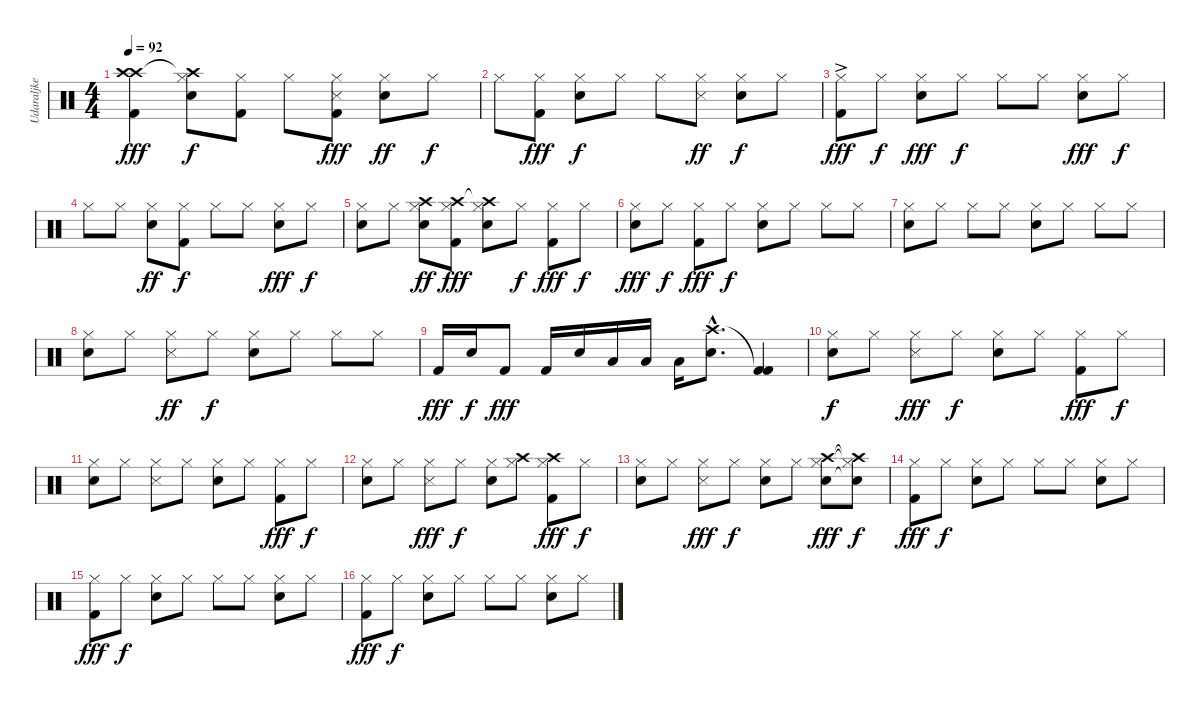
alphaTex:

\track ("Udaraljke" "Udaraljke") {instrument percussion}
\staff {score}
\articulation defaults
\ts (4 4)
\tempo 92
\clef neutral
\ks c
("Kick (hit) 2" "Crash high (hit)" "Crash high (hit)").4{dy fff} ("Hi-Hat (closed)" "Electric Snare (hit)" "Crash high (hit)"{t}).8{dy f} ("Hi-Hat (closed)" "Kick (hit) 2").8 "Hi-Hat (closed)".8 ("Hi-Hat (closed)" "Kick (hit) 2" "Snare (side stick) 3").8{dy fff} ("Hi-Hat (closed)" "Electric Snare (hit)").8{dy ff} "Hi-Hat (closed)".8{dy f} |
"Hi-Hat (closed)".8 ("Hi-Hat (closed)" "Kick (hit) 2").8{dy fff} ("Hi-Hat (closed)" "Electric Snare (hit)").8{dy f} "Hi-Hat (closed)".8 "Hi-Hat (closed)".8 ("Hi-Hat (closed)" "Snare (side stick) 3").8{dy ff} ("Hi-Hat (closed)" "Electric Snare (hit)").8{dy f} "Hi-Hat (closed)".8 |
("Hi-Hat (closed)" "Kick (hit) 2"{ac}).8{dy fff} "Hi-Hat (closed)".8{dy f} ("Hi-Hat (closed)" "Electric Snare (hit)").8{dy fff} "Hi-Hat (closed)".8{dy f} "Hi-Hat (closed)".8 "Hi-Hat (closed)".8 ("Hi-Hat (closed)" "Electric Snare (hit)").8{dy fff} "Hi-Hat (closed)".8{dy f} |
"Hi-Hat (closed)".8 "Hi-Hat (closed)".8 ("Hi-Hat (closed)" "Electric Snare (hit)").8{dy ff} ("Hi-Hat (closed)" "Kick (hit) 2").8{dy f} "Hi-Hat (closed)".8 "Hi-Hat (closed)".8 ("Hi-Hat (closed)" "Electric Snare (hit)").8{dy fff} "Hi-Hat (closed)".8{dy f} |
("Hi-Hat (closed)" "Electric Snare (hit)").8 "Hi-Hat (closed)".8 ("Hi-Hat (closed)" "Electric Snare (hit)" "Crash high (hit)").8{dy ff} ("Hi-Hat (closed)" "Kick (hit) 2" "Crash high (hit)").8{dy fff} ("Hi-Hat (closed)" "Electric Snare (hit)" "Crash high (hit)"{t}).8 "Hi-Hat (closed)".8{dy f} ("Hi-Hat (closed)" "Kick (hit) 2").8{dy fff} "Hi-Hat (closed)".8{dy f} |
("Hi-Hat (closed)" "Electric Snare (hit)").8{dy fff} "Hi-Hat (closed)".8{dy f} ("Hi-Hat (closed)" "Kick (hit) 2").8{dy fff} "Hi-Hat (closed)".8{dy f} ("Hi-Hat (closed)" "Electric Snare (hit)").8 "Hi-Hat (closed)".8 "Hi-Hat (closed)".8 "Hi-Hat (closed)".8 |
("Hi-Hat (closed)" "Electric Snare (hit)").8 "Hi-Hat (closed)".8 "Hi-Hat (closed)".8 "Hi-Hat (closed)".8 ("Hi-Hat (closed)" "Electric Snare (hit)").8 "Hi-Hat (closed)".8 "Hi-Hat (closed)".8 "Hi-Hat (closed)".8 |
("Hi-Hat (closed)" "Electric Snare (hit)").8 "Hi-Hat (closed)".8 ("Hi-Hat (closed)" "Snare (side stick) 3").8{dy ff} "Hi-Hat (closed)".8{dy f} ("Hi-Hat (closed)" "Electric Snare (hit)").8 "Hi-Hat (closed)".8 "Hi-Hat (closed)".8 "Hi-Hat (closed)".8 |
"Kick (hit) 2".16{dy fff} "Electric Snare (hit)".16{dy f} "Kick (hit) 2".8{dy fff} "Kick (hit) 2".16 "Electric Snare (hit)".16 "Low Floor Tom (hit)".16 "Low Tom (hit)".16 "Low Floor Tom (hit)".16 ("Crash high (hit)"{hac} "Electric Snare (hit)"{hac}).8{d} ("Kick (hit) 2"{t} "Kick (hit) 2").4 |
("Hi-Hat (closed)" "Electric Snare (hit)").8{dy f} "Hi-Hat (closed)".8 ("Hi-Hat (closed)" "Snare (side stick) 3").8{dy fff} "Hi-Hat (closed)".8{dy f} ("Hi-Hat (closed)" "Electric Snare (hit)").8 "Hi-Hat (closed)".8 ("Hi-Hat (closed)" "Kick (hit) 2").8{dy fff} "Hi-Hat (closed)".8{dy f} |
("Hi-Hat (closed)" "Electric Snare (hit)").8 "Hi-Hat (closed)".8 ("Hi-Hat (closed)" "Snare (side stick) 3").8 "Hi-Hat (closed)".8 ("Hi-Hat (closed)" "Electric Snare (hit)").8 "Hi-Hat (closed)".8 ("Hi-Hat (closed)" "Kick (hit) 2").8{dy fff} "Hi-Hat (closed)".8{dy f} |
("Hi-Hat (closed)" "Electric Snare (hit)").8 "Hi-Hat (closed)".8 ("Hi-Hat (closed)" "Snare (side stick) 3").8{dy fff} "Hi-Hat (closed)".8{dy f} ("Hi-Hat (closed)" "Electric Snare (hit)").8 ("Hi-Hat (closed)" "Crash high (hit)").8 ("Hi-Hat (closed)" "Kick (hit) 2" "Crash high (hit)").8{dy fff} "Hi-Hat (closed)".8{dy f} |
("Hi-Hat (closed)" "Electric Snare (hit)").8 "Hi-Hat (closed)".8 ("Hi-Hat (closed)" "Snare (side stick) 3").8{dy fff} "Hi-Hat (closed)".8{dy f} ("Hi-Hat (closed)" "Electric Snare (hit)").8 "Hi-Hat (closed)".8 ("Hi-Hat (closed)" "Electric Snare (hit)" "Crash high (hit)").8{dy fff} ("Hi-Hat (closed)"{t} "Electric Snare (hit)"{t} "Crash high (hit)"{t}).8{dy f} |
("Hi-Hat (closed)" "Kick (hit) 2").8{dy fff} "Hi-Hat (closed)".8{dy f} ("Hi-Hat (closed)" "Electric Snare (hit)").8 "Hi-Hat (closed)".8 "Hi-Hat (closed)".8 "Hi-Hat (closed)".8 ("Hi-Hat (closed)" "Electric Snare (hit)").8 "Hi-Hat (closed)".8 |
("Hi-Hat (closed)" "Kick (hit) 2").8{dy fff} "Hi-Hat (closed)".8{dy f} ("Hi-Hat (closed)" "Electric Snare (hit)").8 "Hi-Hat (closed)".8 "Hi-Hat (closed)".8 "Hi-Hat (closed)".8 ("Hi-Hat (closed)" "Electric Snare (hit)").8 "Hi-Hat (closed)".8 |
("Hi-Hat (closed)" "Kick (hit) 2").8{dy fff} "Hi-Hat (closed)".8{dy f} ("Hi-Hat (closed)" "Electric Snare (hit)").8 "Hi-Hat (closed)".8 "Hi-Hat (closed)".8 "Hi-Hat (closed)".8 ("Hi-Hat (closed)" "Electric Snare (hit)").8 "Hi-Hat (closed)".8
